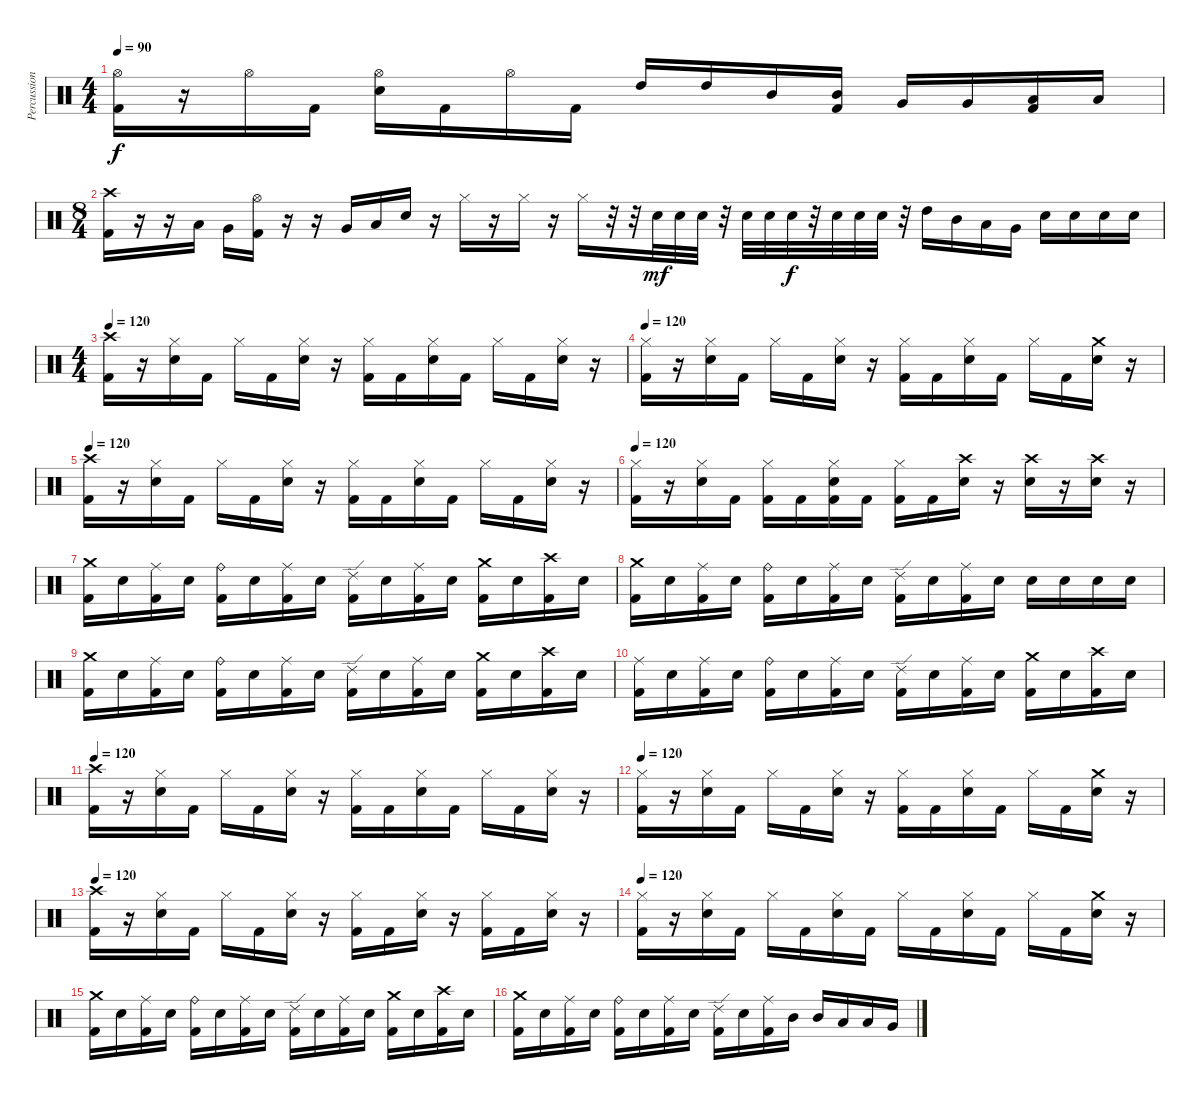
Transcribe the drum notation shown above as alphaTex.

\track ("Percussion" "Percussion") {instrument percussion}
\staff {score}
\articulation defaults
\ts (4 4)
\tempo 90
\clef neutral
\ks c
("Hi-Hat (open)" "Kick (hit) 2").16{dy f} r.16 "Hi-Hat (open)".16 "Kick (hit) 2".16 ("Hi-Hat (open)" "Snare (hit) 2").16 "Kick (hit) 2".16 "Hi-Hat (open)".16 "Kick (hit) 2".16 "High Tom (hit)".16 "High Tom (hit)".16 "Mid Tom (hit)".16 ("Mid Tom (hit)" "Kick (hit) 2").16 "Very Low Tom (hit)".16 "Very Low Tom (hit)".16 ("Low Floor Tom (hit)" "Kick (hit) 2").16 "Low Floor Tom (hit)".16 |
\ts (8 4)
("Crash high (hit)" "Kick (hit) 2").16 r.16 r.16 "Low Tom (hit)".16 "Very Low Tom (hit)".16 ("Hi-Hat (open)" "Kick (hit) 2").16 r.16 r.16 "Very Low Tom (hit)".16 "Low Floor Tom (hit)".16 "Snare (hit) 2".16 r.16 "Hi-Hat (closed)".16 r.16 "Hi-Hat (closed)".16 r.16 "Hi-Hat (closed)".16 r.32 r.32 "Snare (hit) 2".32{dy mf} "Snare (hit) 2".32 "Snare (hit) 2".32 r.32 "Snare (hit) 2".32 "Snare (hit) 2".32 "Snare (hit) 2".32{dy f} r.32 "Snare (hit) 2".32 "Snare (hit) 2".32 "Snare (hit) 2".32 r.32 "High Tom (hit)".16 "Mid Tom (hit)".16 "Low Tom (hit)".16 "Very Low Tom (hit)".16 "Snare (hit) 2".16 "Snare (hit) 2".16 "Snare (hit) 2".16 "Snare (hit) 2".16 |
\ts (4 4)
\tempo 120
("Crash high (hit)" "Kick (hit) 2").16 r.16 ("Hi-Hat (closed)" "Snare (hit) 2").16 "Kick (hit) 2".16 "Hi-Hat (closed)".16 "Kick (hit) 2".16 ("Hi-Hat (closed)" "Snare (hit) 2").16 r.16 ("Hi-Hat (closed)" "Kick (hit) 2").16 "Kick (hit) 2".16 ("Hi-Hat (closed)" "Snare (hit) 2").16 "Kick (hit) 2".16 "Hi-Hat (closed)".16 "Kick (hit) 2".16 ("Hi-Hat (closed)" "Snare (hit) 2").16 r.16 |
\tempo 120
("Hi-Hat (closed)" "Kick (hit) 2").16 r.16 ("Hi-Hat (closed)" "Snare (hit) 2").16 "Kick (hit) 2".16 "Hi-Hat (closed)".16 "Kick (hit) 2".16 ("Hi-Hat (closed)" "Snare (hit) 2").16 r.16 ("Hi-Hat (closed)" "Kick (hit) 2").16 "Kick (hit) 2".16 ("Hi-Hat (closed)" "Snare (hit) 2").16 "Kick (hit) 2".16 "Hi-Hat (closed)".16 "Kick (hit) 2".16 ("Crash medium (hit)" "Snare (hit) 2").16 r.16 |
\tempo 120
("Crash high (hit)" "Kick (hit) 2").16 r.16 ("Hi-Hat (closed)" "Snare (hit) 2").16 "Kick (hit) 2".16 "Hi-Hat (closed)".16 "Kick (hit) 2".16 ("Hi-Hat (closed)" "Snare (hit) 2").16 r.16 ("Hi-Hat (closed)" "Kick (hit) 2").16 "Kick (hit) 2".16 ("Hi-Hat (closed)" "Snare (hit) 2").16 "Kick (hit) 2".16 "Hi-Hat (closed)".16 "Kick (hit) 2".16 ("Hi-Hat (closed)" "Snare (hit) 2").16 r.16 |
\tempo 120
("Hi-Hat (closed)" "Kick (hit) 2").16 r.16 ("Hi-Hat (closed)" "Snare (hit) 2").16 "Kick (hit) 2".16 ("Hi-Hat (closed)" "Kick (hit) 2").16 "Kick (hit) 2".16 ("Hi-Hat (closed)" "Snare (hit) 2" "Kick (hit) 2").16 "Kick (hit) 2".16 ("Hi-Hat (closed)" "Kick (hit) 2").16 "Kick (hit) 2".16 ("Crash high (hit)" "Snare (hit) 2").16 r.16 ("Crash high (hit)" "Snare (hit) 2").16 r.16 ("Crash high (hit)" "Snare (hit) 2").16 r.16 |
("Crash medium (hit)" "Kick (hit) 2").16 "Snare (hit) 2".16 ("Ride (middle)" "Kick (hit) 2").16 "Snare (hit) 2".16 ("Ride (bell)" "Kick (hit) 2").16 "Snare (hit) 2".16 ("Ride (middle)" "Kick (hit) 2").16 "Snare (hit) 2".16 ("Ride (edge) 2" "Kick (hit) 2").16 "Snare (hit) 2".16 ("Ride (middle)" "Kick (hit) 2").16 "Snare (hit) 2".16 ("Crash medium (hit)" "Kick (hit) 2").16 "Snare (hit) 2".16 ("Crash high (hit)" "Kick (hit) 2").16 "Snare (hit) 2".16 |
("Crash medium (hit)" "Kick (hit) 2").16 "Snare (hit) 2".16 ("Ride (middle)" "Kick (hit) 2").16 "Snare (hit) 2".16 ("Ride (bell)" "Kick (hit) 2").16 "Snare (hit) 2".16 ("Ride (middle)" "Kick (hit) 2").16 "Snare (hit) 2".16 ("Ride (edge) 2" "Kick (hit) 2").16 "Snare (hit) 2".16 ("Ride (middle)" "Kick (hit) 2").16 "Snare (hit) 2".16 "Snare (hit) 2".16 "Snare (hit) 2".16 "Snare (hit) 2".16 "Snare (hit) 2".16 |
("Crash medium (hit)" "Kick (hit) 2").16 "Snare (hit) 2".16 ("Ride (middle)" "Kick (hit) 2").16 "Snare (hit) 2".16 ("Ride (bell)" "Kick (hit) 2").16 "Snare (hit) 2".16 ("Ride (middle)" "Kick (hit) 2").16 "Snare (hit) 2".16 ("Ride (edge) 2" "Kick (hit) 2").16 "Snare (hit) 2".16 ("Ride (middle)" "Kick (hit) 2").16 "Snare (hit) 2".16 ("Crash medium (hit)" "Kick (hit) 2").16 "Snare (hit) 2".16 ("Crash high (hit)" "Kick (hit) 2").16 "Snare (hit) 2".16 |
("Ride (middle)" "Kick (hit) 2").16 "Snare (hit) 2".16 ("Ride (middle)" "Kick (hit) 2").16 "Snare (hit) 2".16 ("Ride (bell)" "Kick (hit) 2").16 "Snare (hit) 2".16 ("Ride (middle)" "Kick (hit) 2").16 "Snare (hit) 2".16 ("Ride (edge) 2" "Kick (hit) 2").16 "Snare (hit) 2".16 ("Ride (middle)" "Kick (hit) 2").16 "Snare (hit) 2".16 ("Crash medium (hit)" "Kick (hit) 2").16 "Snare (hit) 2".16 ("Crash high (hit)" "Kick (hit) 2").16 "Snare (hit) 2".16 |
\tempo 120
("Crash high (hit)" "Kick (hit) 2").16 r.16 ("Hi-Hat (closed)" "Snare (hit) 2").16 "Kick (hit) 2".16 "Hi-Hat (closed)".16 "Kick (hit) 2".16 ("Hi-Hat (closed)" "Snare (hit) 2").16 r.16 ("Hi-Hat (closed)" "Kick (hit) 2").16 "Kick (hit) 2".16 ("Hi-Hat (closed)" "Snare (hit) 2").16 "Kick (hit) 2".16 "Hi-Hat (closed)".16 "Kick (hit) 2".16 ("Hi-Hat (closed)" "Snare (hit) 2").16 r.16 |
\tempo 120
("Hi-Hat (closed)" "Kick (hit) 2").16 r.16 ("Hi-Hat (closed)" "Snare (hit) 2").16 "Kick (hit) 2".16 "Hi-Hat (closed)".16 "Kick (hit) 2".16 ("Hi-Hat (closed)" "Snare (hit) 2").16 r.16 ("Hi-Hat (closed)" "Kick (hit) 2").16 "Kick (hit) 2".16 ("Hi-Hat (closed)" "Snare (hit) 2").16 "Kick (hit) 2".16 "Hi-Hat (closed)".16 "Kick (hit) 2".16 ("Crash medium (hit)" "Snare (hit) 2").16 r.16 |
\tempo 120
("Crash high (hit)" "Kick (hit) 2").16 r.16 ("Hi-Hat (closed)" "Snare (hit) 2").16 "Kick (hit) 2".16 "Hi-Hat (closed)".16 "Kick (hit) 2".16 ("Hi-Hat (closed)" "Snare (hit) 2").16 r.16 ("Hi-Hat (closed)" "Kick (hit) 2").16 "Kick (hit) 2".16 ("Hi-Hat (closed)" "Snare (hit) 2").16 r.16 ("Hi-Hat (closed)" "Kick (hit) 2").16 "Kick (hit) 2".16 ("Hi-Hat (closed)" "Snare (hit) 2").16 r.16 |
\tempo 120
("Hi-Hat (closed)" "Kick (hit) 2").16 r.16 ("Hi-Hat (closed)" "Snare (hit) 2").16 "Kick (hit) 2".16 "Hi-Hat (closed)".16 "Kick (hit) 2".16 ("Hi-Hat (closed)" "Snare (hit) 2").16 "Kick (hit) 2".16 "Hi-Hat (closed)".16 "Kick (hit) 2".16 ("Hi-Hat (closed)" "Snare (hit) 2").16 "Kick (hit) 2".16 "Hi-Hat (closed)".16 "Kick (hit) 2".16 ("Crash medium (hit)" "Snare (hit) 2").16 r.16 |
("Crash medium (hit)" "Kick (hit) 2").16 "Snare (hit) 2".16 ("Ride (middle)" "Kick (hit) 2").16 "Snare (hit) 2".16 ("Ride (bell)" "Kick (hit) 2").16 "Snare (hit) 2".16 ("Ride (middle)" "Kick (hit) 2").16 "Snare (hit) 2".16 ("Ride (edge) 2" "Kick (hit) 2").16 "Snare (hit) 2".16 ("Ride (middle)" "Kick (hit) 2").16 "Snare (hit) 2".16 ("Crash medium (hit)" "Kick (hit) 2").16 "Snare (hit) 2".16 ("Crash high (hit)" "Kick (hit) 2").16 "Snare (hit) 2".16 |
("Crash medium (hit)" "Kick (hit) 2").16 "Snare (hit) 2".16 ("Ride (middle)" "Kick (hit) 2").16 "Snare (hit) 2".16 ("Ride (bell)" "Kick (hit) 2").16 "Snare (hit) 2".16 ("Ride (middle)" "Kick (hit) 2").16 "Snare (hit) 2".16 ("Ride (edge) 2" "Kick (hit) 2").16 "Snare (hit) 2".16 ("Ride (middle)" "Kick (hit) 2").16 "Mid Tom (hit)".16 "Mid Tom (hit)".16 "Low Tom (hit)".16 "Low Tom (hit)".16 "Very Low Tom (hit)".16
